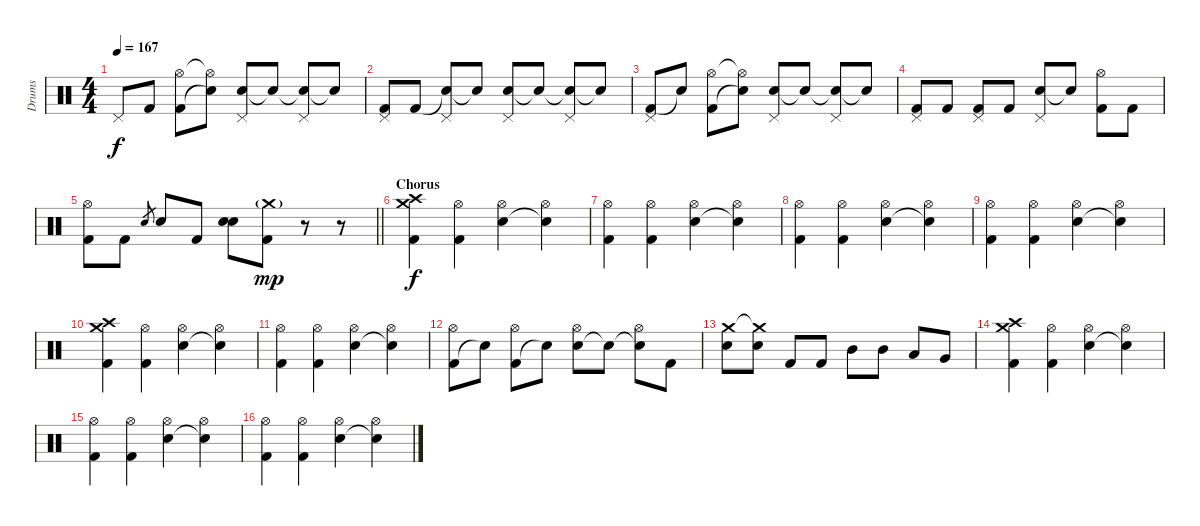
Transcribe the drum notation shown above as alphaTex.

\track ("Drums" "Drums") {instrument percussion}
\staff {score}
\articulation defaults
\ts (4 4)
\tempo 167
\clef neutral
\ks c "Pedal Hi-Hat (hit)".8{dy f} "Kick (hit) 2".8
("Kick (hit) 2" "Hi-Hat (open)").8 ("Snare (hit)"{t} "Hi-Hat (open)"{t}).8 ("Electric Snare (hit)" "Pedal Hi-Hat (hit)").8 "Snare (hit)"{t}.8 ("Snare (hit)"{t} "Pedal Hi-Hat (hit)").8 "Snare (hit)"{t}.8 |
("Kick (hit) 2" "Pedal Hi-Hat (hit)").8 "Kick (hit) 2".8 ("Snare (hit)"{t} "Pedal Hi-Hat (hit)").8 "Snare (hit)"{t}.8 ("Electric Snare (hit)" "Pedal Hi-Hat (hit)").8 "Snare (hit)"{t}.8 ("Snare (hit)"{t} "Pedal Hi-Hat (hit)").8 "Snare (hit)"{t}.8 |
("Kick (hit) 2" "Pedal Hi-Hat (hit)").8 "Snare (hit)"{t}.8 ("Kick (hit) 2" "Hi-Hat (open)").8 ("Snare (hit)"{t} "Hi-Hat (open)"{t}).8 ("Electric Snare (hit)" "Pedal Hi-Hat (hit)").8 "Snare (hit)"{t}.8 ("Snare (hit)"{t} "Pedal Hi-Hat (hit)").8 "Snare (hit)"{t}.8 |
("Kick (hit) 2" "Pedal Hi-Hat (hit)").8 "Kick (hit) 2".8 ("Kick (hit) 2" "Pedal Hi-Hat (hit)").8 "Kick (hit) 2".8 ("Electric Snare (hit)" "Pedal Hi-Hat (hit)").8 "Snare (hit)"{t}.8 ("Kick (hit) 2" "Hi-Hat (open)").8 "Kick (hit) 2".8 |
\barLineRight lightlight
("Kick (hit) 2" "Hi-Hat (open)").8 "Kick (hit) 2".8 "Electric Snare (hit)".8{gr} "Electric Snare (hit)".8 "Kick (hit) 2".8 ("Electric Snare (hit)" "Electric Snare (hit)").8 ("Kick (hit) 2" "Crash medium (hit)"{g}).8{dy mp} r.8 r.8 |
\section ("" "Chorus")
("Kick (hit) 2" "Crash medium (hit)" "Crash high (hit)").4{dy f} ("Kick (hit) 2" "Hi-Hat (open)").4 ("Electric Snare (hit)" "Hi-Hat (open)").4 ("Snare (hit)"{t} "Hi-Hat (open)").4 |
("Kick (hit) 2" "Hi-Hat (open)").4 ("Kick (hit) 2" "Hi-Hat (open)").4 ("Electric Snare (hit)" "Hi-Hat (open)").4 ("Snare (hit)"{t} "Hi-Hat (open)").4 |
("Kick (hit) 2" "Hi-Hat (open)").4 ("Kick (hit) 2" "Hi-Hat (open)").4 ("Electric Snare (hit)" "Hi-Hat (open)").4 ("Snare (hit)"{t} "Hi-Hat (open)").4 |
("Kick (hit) 2" "Hi-Hat (open)").4 ("Kick (hit) 2" "Hi-Hat (open)").4 ("Electric Snare (hit)" "Hi-Hat (open)").4 ("Snare (hit)"{t} "Hi-Hat (open)").4 |
("Kick (hit) 2" "Crash medium (hit)" "Crash high (hit)").4 ("Kick (hit) 2" "Hi-Hat (open)").4 ("Electric Snare (hit)" "Hi-Hat (open)").4 ("Snare (hit)"{t} "Hi-Hat (open)").4 |
("Kick (hit) 2" "Hi-Hat (open)").4 ("Kick (hit) 2" "Hi-Hat (open)").4 ("Electric Snare (hit)" "Hi-Hat (open)").4 ("Snare (hit)"{t} "Hi-Hat (open)").4 |
("Kick (hit) 2" "Hi-Hat (open)").8 "Snare (hit)"{t}.8 ("Kick (hit) 2" "Hi-Hat (open)").8 "Snare (hit)"{t}.8 ("Electric Snare (hit)" "Hi-Hat (open)").8 "Snare (hit)"{t}.8 ("Snare (hit)"{t} "Hi-Hat (open)").8 "Kick (hit) 2".8 |
("Electric Snare (hit)" "Crash medium (hit)").8 ("Electric Snare (hit)" "Crash medium (hit)"{t}).8 "Kick (hit) 2".8 "Kick (hit) 2".8 "Mid Tom (hit)".8 "Mid Tom (hit)".8 "Low Tom (hit)".8 "Very Low Tom (hit)".8 |
("Kick (hit) 2" "Crash medium (hit)" "Crash high (hit)").4 ("Kick (hit) 2" "Hi-Hat (open)").4 ("Electric Snare (hit)" "Hi-Hat (open)").4 ("Snare (hit)"{t} "Hi-Hat (open)").4 |
("Kick (hit) 2" "Hi-Hat (open)").4 ("Kick (hit) 2" "Hi-Hat (open)").4 ("Electric Snare (hit)" "Hi-Hat (open)").4 ("Snare (hit)"{t} "Hi-Hat (open)").4 |
("Kick (hit) 2" "Hi-Hat (open)").4 ("Kick (hit) 2" "Hi-Hat (open)").4 ("Electric Snare (hit)" "Hi-Hat (open)").4 ("Snare (hit)"{t} "Hi-Hat (open)").4
